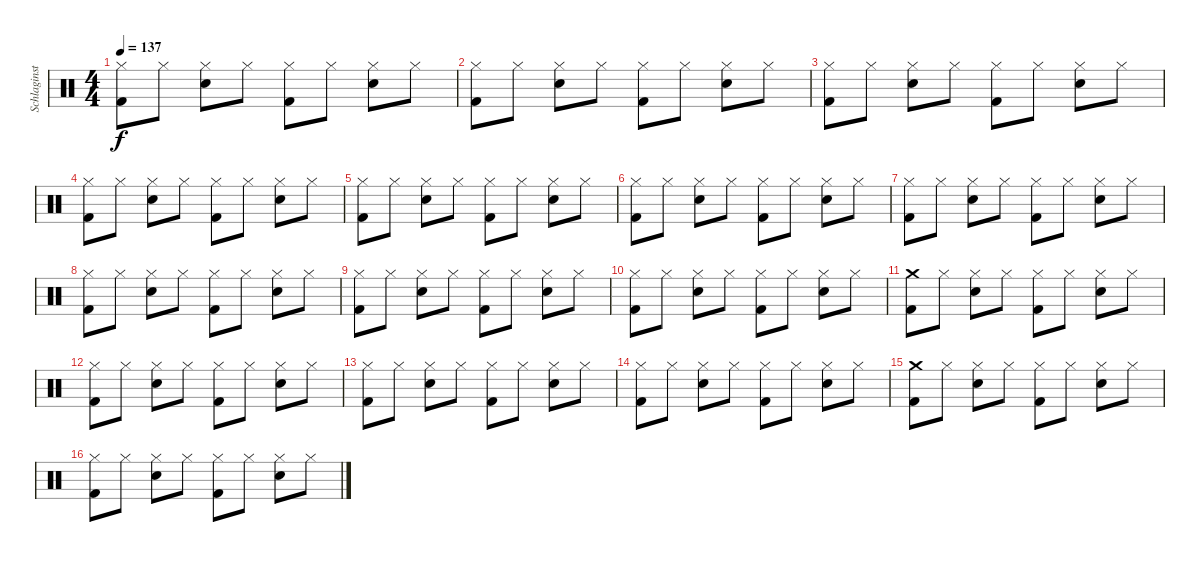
\track ("Schlaginstrumente - Auswahl" "Schlaginst") {instrument percussion}
\staff {score}
\articulation defaults
\ts (4 4)
\tempo 137
\clef neutral
\ks c
("Hi-Hat (closed)" "Kick (hit) 2").8{dy f} "Hi-Hat (closed)".8 ("Hi-Hat (closed)" "Electric Snare (hit)").8 "Hi-Hat (closed)".8 ("Hi-Hat (closed)" "Kick (hit) 2").8 "Hi-Hat (closed)".8 ("Hi-Hat (closed)" "Electric Snare (hit)").8 "Hi-Hat (closed)".8 |
("Hi-Hat (closed)" "Kick (hit) 2").8 "Hi-Hat (closed)".8 ("Hi-Hat (closed)" "Electric Snare (hit)").8 "Hi-Hat (closed)".8 ("Hi-Hat (closed)" "Kick (hit) 2").8 "Hi-Hat (closed)".8 ("Hi-Hat (closed)" "Electric Snare (hit)").8 "Hi-Hat (closed)".8 |
("Hi-Hat (closed)" "Kick (hit) 2").8 "Hi-Hat (closed)".8 ("Hi-Hat (closed)" "Electric Snare (hit)").8 "Hi-Hat (closed)".8 ("Hi-Hat (closed)" "Kick (hit) 2").8 "Hi-Hat (closed)".8 ("Hi-Hat (closed)" "Electric Snare (hit)").8 "Hi-Hat (closed)".8 |
("Hi-Hat (closed)" "Kick (hit) 2").8 "Hi-Hat (closed)".8 ("Hi-Hat (closed)" "Electric Snare (hit)").8 "Hi-Hat (closed)".8 ("Hi-Hat (closed)" "Kick (hit) 2").8 "Hi-Hat (closed)".8 ("Hi-Hat (closed)" "Electric Snare (hit)").8 "Hi-Hat (closed)".8 |
("Hi-Hat (closed)" "Kick (hit) 2").8 "Hi-Hat (closed)".8 ("Hi-Hat (closed)" "Electric Snare (hit)").8 "Hi-Hat (closed)".8 ("Hi-Hat (closed)" "Kick (hit) 2").8 "Hi-Hat (closed)".8 ("Hi-Hat (closed)" "Electric Snare (hit)").8 "Hi-Hat (closed)".8 |
("Hi-Hat (closed)" "Kick (hit) 2").8 "Hi-Hat (closed)".8 ("Hi-Hat (closed)" "Electric Snare (hit)").8 "Hi-Hat (closed)".8 ("Hi-Hat (closed)" "Kick (hit) 2").8 "Hi-Hat (closed)".8 ("Hi-Hat (closed)" "Electric Snare (hit)").8 "Hi-Hat (closed)".8 |
("Hi-Hat (closed)" "Kick (hit) 2").8 "Hi-Hat (closed)".8 ("Hi-Hat (closed)" "Electric Snare (hit)").8 "Hi-Hat (closed)".8 ("Hi-Hat (closed)" "Kick (hit) 2").8 "Hi-Hat (closed)".8 ("Hi-Hat (closed)" "Electric Snare (hit)").8 "Hi-Hat (closed)".8 |
("Hi-Hat (closed)" "Kick (hit) 2").8 "Hi-Hat (closed)".8 ("Hi-Hat (closed)" "Electric Snare (hit)").8 "Hi-Hat (closed)".8 ("Hi-Hat (closed)" "Kick (hit) 2").8 "Hi-Hat (closed)".8 ("Hi-Hat (closed)" "Electric Snare (hit)").8 "Hi-Hat (closed)".8 |
("Hi-Hat (closed)" "Kick (hit) 2").8 "Hi-Hat (closed)".8 ("Hi-Hat (closed)" "Electric Snare (hit)").8 "Hi-Hat (closed)".8 ("Hi-Hat (closed)" "Kick (hit) 2").8 "Hi-Hat (closed)".8 ("Hi-Hat (closed)" "Electric Snare (hit)").8 "Hi-Hat (closed)".8 |
("Hi-Hat (closed)" "Kick (hit) 2").8 "Hi-Hat (closed)".8 ("Hi-Hat (closed)" "Electric Snare (hit)").8 "Hi-Hat (closed)".8 ("Hi-Hat (closed)" "Kick (hit) 2").8 "Hi-Hat (closed)".8 ("Hi-Hat (closed)" "Electric Snare (hit)").8 "Hi-Hat (closed)".8 |
("Crash medium (hit)" "Kick (hit) 2").8 "Hi-Hat (closed)".8 ("Hi-Hat (closed)" "Electric Snare (hit)").8 "Hi-Hat (closed)".8 ("Hi-Hat (closed)" "Kick (hit) 2").8 "Hi-Hat (closed)".8 ("Hi-Hat (closed)" "Electric Snare (hit)").8 "Hi-Hat (closed)".8 |
("Hi-Hat (closed)" "Kick (hit) 2").8 "Hi-Hat (closed)".8 ("Hi-Hat (closed)" "Electric Snare (hit)").8 "Hi-Hat (closed)".8 ("Hi-Hat (closed)" "Kick (hit) 2").8 "Hi-Hat (closed)".8 ("Hi-Hat (closed)" "Electric Snare (hit)").8 "Hi-Hat (closed)".8 |
("Hi-Hat (closed)" "Kick (hit) 2").8 "Hi-Hat (closed)".8 ("Hi-Hat (closed)" "Electric Snare (hit)").8 "Hi-Hat (closed)".8 ("Hi-Hat (closed)" "Kick (hit) 2").8 "Hi-Hat (closed)".8 ("Hi-Hat (closed)" "Electric Snare (hit)").8 "Hi-Hat (closed)".8 |
("Hi-Hat (closed)" "Kick (hit) 2").8 "Hi-Hat (closed)".8 ("Hi-Hat (closed)" "Electric Snare (hit)").8 "Hi-Hat (closed)".8 ("Hi-Hat (closed)" "Kick (hit) 2").8 "Hi-Hat (closed)".8 ("Hi-Hat (closed)" "Electric Snare (hit)").8 "Hi-Hat (closed)".8 |
("Crash medium (hit)" "Kick (hit) 2").8 "Hi-Hat (closed)".8 ("Hi-Hat (closed)" "Electric Snare (hit)").8 "Hi-Hat (closed)".8 ("Hi-Hat (closed)" "Kick (hit) 2").8 "Hi-Hat (closed)".8 ("Hi-Hat (closed)" "Electric Snare (hit)").8 "Hi-Hat (closed)".8 |
("Hi-Hat (closed)" "Kick (hit) 2").8 "Hi-Hat (closed)".8 ("Hi-Hat (closed)" "Electric Snare (hit)").8 "Hi-Hat (closed)".8 ("Hi-Hat (closed)" "Kick (hit) 2").8 "Hi-Hat (closed)".8 ("Hi-Hat (closed)" "Electric Snare (hit)").8 "Hi-Hat (closed)".8
